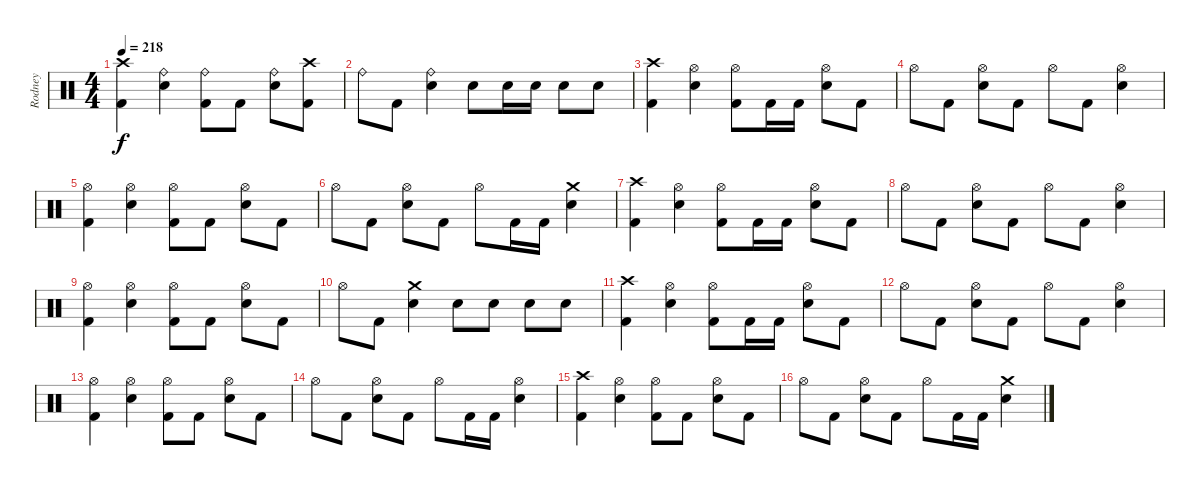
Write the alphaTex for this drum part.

\track ("Rodney" "Rodney") {instrument percussion}
\staff {score}
\articulation defaults
\ts (4 4)
\tempo 218
\clef neutral
\ks c
("Crash high (hit)" "Kick (hit) 2").4{dy f} ("Ride (bell)" "Snare (hit) 2").4 ("Ride (bell)" "Kick (hit) 2").8 "Kick (hit) 2".8 ("Ride (bell)" "Snare (hit) 2").8 ("Crash high (hit)" "Kick (hit) 2").8 |
"Ride (bell)".8 "Kick (hit) 2".8 ("Ride (bell)" "Snare (hit) 2").4 "Snare (hit) 2".8 "Snare (hit) 2".16 "Snare (hit) 2".16 "Snare (hit) 2".8 "Snare (hit) 2".8 |
("Crash high (hit)" "Kick (hit) 2").4 ("Hi-Hat (open)" "Snare (hit) 2").4 ("Hi-Hat (open)" "Kick (hit) 2").8 "Kick (hit) 2".16 "Kick (hit) 2".16 ("Hi-Hat (open)" "Snare (hit) 2").8 "Kick (hit) 2".8 |
"Hi-Hat (open)".8 "Kick (hit) 2".8 ("Hi-Hat (open)" "Snare (hit) 2").8 "Kick (hit) 2".8 "Hi-Hat (open)".8 "Kick (hit) 2".8 ("Hi-Hat (open)" "Snare (hit) 2").4 |
("Hi-Hat (open)" "Kick (hit) 2").4 ("Hi-Hat (open)" "Snare (hit) 2").4 ("Hi-Hat (open)" "Kick (hit) 2").8 "Kick (hit) 2".8 ("Hi-Hat (open)" "Snare (hit) 2").8 "Kick (hit) 2".8 |
"Hi-Hat (open)".8 "Kick (hit) 2".8 ("Hi-Hat (open)" "Snare (hit) 2").8 "Kick (hit) 2".8 "Hi-Hat (open)".8 "Kick (hit) 2".16 "Kick (hit) 2".16 ("Crash medium (hit)" "Snare (hit) 2").4 |
("Crash high (hit)" "Kick (hit) 2").4 ("Hi-Hat (open)" "Snare (hit) 2").4 ("Hi-Hat (open)" "Kick (hit) 2").8 "Kick (hit) 2".16 "Kick (hit) 2".16 ("Hi-Hat (open)" "Snare (hit) 2").8 "Kick (hit) 2".8 |
"Hi-Hat (open)".8 "Kick (hit) 2".8 ("Hi-Hat (open)" "Snare (hit) 2").8 "Kick (hit) 2".8 "Hi-Hat (open)".8 "Kick (hit) 2".8 ("Hi-Hat (open)" "Snare (hit) 2").4 |
("Hi-Hat (open)" "Kick (hit) 2").4 ("Hi-Hat (open)" "Snare (hit) 2").4 ("Hi-Hat (open)" "Kick (hit) 2").8 "Kick (hit) 2".8 ("Hi-Hat (open)" "Snare (hit) 2").8 "Kick (hit) 2".8 |
"Hi-Hat (open)".8 "Kick (hit) 2".8 ("Crash medium (hit)" "Snare (hit) 2").4 "Snare (hit) 2".8 "Snare (hit) 2".8 "Snare (hit) 2".8 "Snare (hit) 2".8 |
("Crash high (hit)" "Kick (hit) 2").4 ("Hi-Hat (open)" "Snare (hit) 2").4 ("Hi-Hat (open)" "Kick (hit) 2").8 "Kick (hit) 2".16 "Kick (hit) 2".16 ("Hi-Hat (open)" "Snare (hit) 2").8 "Kick (hit) 2".8 |
"Hi-Hat (open)".8 "Kick (hit) 2".8 ("Hi-Hat (open)" "Snare (hit) 2").8 "Kick (hit) 2".8 "Hi-Hat (open)".8 "Kick (hit) 2".8 ("Hi-Hat (open)" "Snare (hit) 2").4 |
("Hi-Hat (open)" "Kick (hit) 2").4 ("Hi-Hat (open)" "Snare (hit) 2").4 ("Hi-Hat (open)" "Kick (hit) 2").8 "Kick (hit) 2".8 ("Hi-Hat (open)" "Snare (hit) 2").8 "Kick (hit) 2".8 |
"Hi-Hat (open)".8 "Kick (hit) 2".8 ("Hi-Hat (open)" "Snare (hit) 2").8 "Kick (hit) 2".8 "Hi-Hat (open)".8 "Kick (hit) 2".16 "Kick (hit) 2".16 ("Hi-Hat (open)" "Snare (hit) 2").4 |
("Crash high (hit)" "Kick (hit) 2").4 ("Hi-Hat (open)" "Snare (hit) 2").4 ("Hi-Hat (open)" "Kick (hit) 2").8 "Kick (hit) 2".8 ("Hi-Hat (open)" "Snare (hit) 2").8 "Kick (hit) 2".8 |
"Hi-Hat (open)".8 "Kick (hit) 2".8 ("Hi-Hat (open)" "Snare (hit) 2").8 "Kick (hit) 2".8 "Hi-Hat (open)".8 "Kick (hit) 2".16 "Kick (hit) 2".16 ("Crash medium (hit)" "Snare (hit) 2").4
